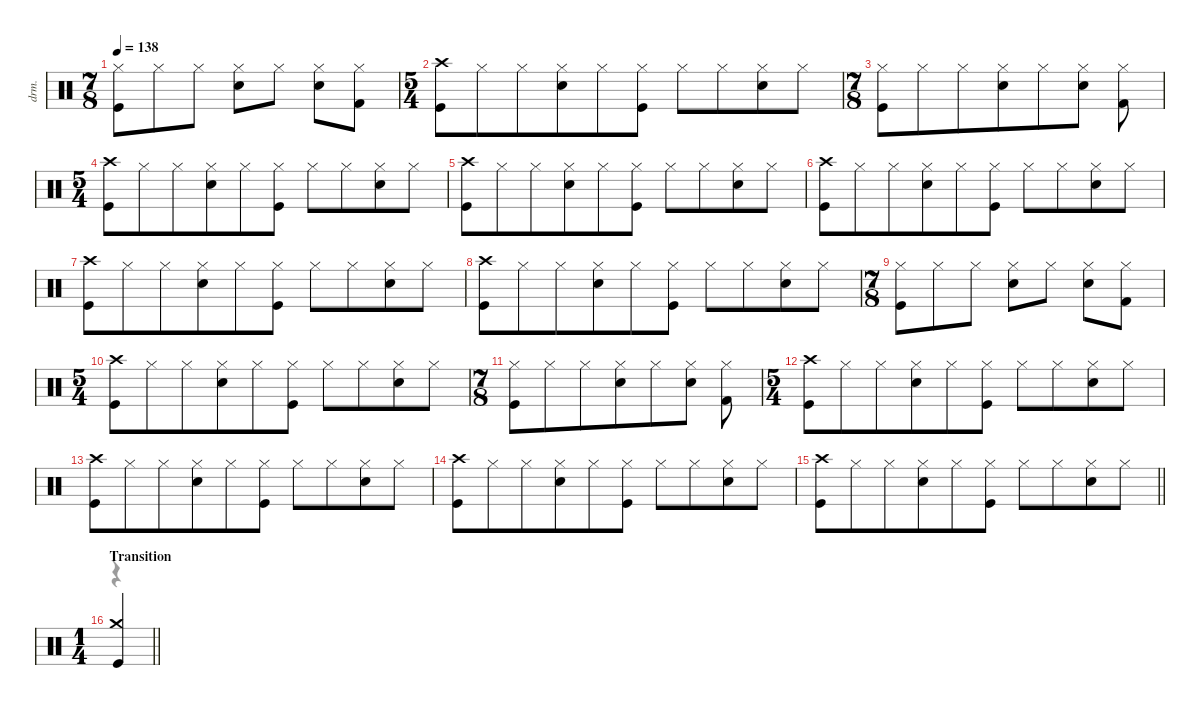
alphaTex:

\defaultSystemsLayout 4
\hideDynamics
\bracketExtendMode nobrackets
\track ("Percussions" "drm.") {instrument percussion}
\staff {score}
\articulation defaults
\voice
\ts (7 8)
\beaming (8 3 2 2)
\tempo 138
\clef neutral
\ks aminor
("Hi-Hat (closed)" "Kick (hit)").8{dy f} "Hi-Hat (closed)".8 "Hi-Hat (closed)".8 ("Hi-Hat (closed)" "Snare (hit) 2").8 "Hi-Hat (closed)".8 ("Hi-Hat (closed)" "Snare (hit) 2").8 ("Hi-Hat (closed)" "Kick (hit) 2").8 |
\ts (5 4)
\beaming (8 6 4)
("Crash high (hit)" "Kick (hit)").8 "Hi-Hat (closed)".8 "Hi-Hat (closed)".8 ("Hi-Hat (closed)" "Snare (hit) 2").8 "Hi-Hat (closed)".8 ("Hi-Hat (closed)" "Kick (hit)").8 "Hi-Hat (closed)".8 "Hi-Hat (closed)".8 ("Hi-Hat (closed)" "Snare (hit) 2").8 "Hi-Hat (closed)".8 |
\ts (7 8)
\beaming (8 6 4)
("Hi-Hat (closed)" "Kick (hit)").8 "Hi-Hat (closed)".8 "Hi-Hat (closed)".8 ("Hi-Hat (closed)" "Snare (hit) 2").8 "Hi-Hat (closed)".8 ("Hi-Hat (closed)" "Snare (hit) 2").8 ("Hi-Hat (closed)" "Kick (hit) 2").8 |
\ts (5 4)
\beaming (8 6 4)
("Crash high (hit)" "Kick (hit)").8 "Hi-Hat (closed)".8 "Hi-Hat (closed)".8 ("Hi-Hat (closed)" "Snare (hit) 2").8 "Hi-Hat (closed)".8 ("Hi-Hat (closed)" "Kick (hit)").8 "Hi-Hat (closed)".8 "Hi-Hat (closed)".8 ("Hi-Hat (closed)" "Snare (hit) 2").8 "Hi-Hat (closed)".8 |
("Crash high (hit)" "Kick (hit)").8 "Hi-Hat (closed)".8 "Hi-Hat (closed)".8 ("Hi-Hat (closed)" "Snare (hit) 2").8 "Hi-Hat (closed)".8 ("Hi-Hat (closed)" "Kick (hit)").8 "Hi-Hat (closed)".8 "Hi-Hat (closed)".8 ("Hi-Hat (closed)" "Snare (hit) 2").8 "Hi-Hat (closed)".8 |
("Crash high (hit)" "Kick (hit)").8 "Hi-Hat (closed)".8 "Hi-Hat (closed)".8 ("Hi-Hat (closed)" "Snare (hit) 2").8 "Hi-Hat (closed)".8 ("Hi-Hat (closed)" "Kick (hit)").8 "Hi-Hat (closed)".8 "Hi-Hat (closed)".8 ("Hi-Hat (closed)" "Snare (hit) 2").8 "Hi-Hat (closed)".8 |
("Crash high (hit)" "Kick (hit)").8 "Hi-Hat (closed)".8 "Hi-Hat (closed)".8 ("Hi-Hat (closed)" "Snare (hit) 2").8 "Hi-Hat (closed)".8 ("Hi-Hat (closed)" "Kick (hit)").8 "Hi-Hat (closed)".8 "Hi-Hat (closed)".8 ("Hi-Hat (closed)" "Snare (hit) 2").8 "Hi-Hat (closed)".8 |
("Crash high (hit)" "Kick (hit)").8 "Hi-Hat (closed)".8 "Hi-Hat (closed)".8 ("Hi-Hat (closed)" "Snare (hit) 2").8 "Hi-Hat (closed)".8 ("Hi-Hat (closed)" "Kick (hit)").8 "Hi-Hat (closed)".8 "Hi-Hat (closed)".8 ("Hi-Hat (closed)" "Snare (hit) 2").8 "Hi-Hat (closed)".8 |
\ts (7 8)
\beaming (8 3 2 2)
("Hi-Hat (closed)" "Kick (hit)").8 "Hi-Hat (closed)".8 "Hi-Hat (closed)".8 ("Hi-Hat (closed)" "Snare (hit) 2").8 "Hi-Hat (closed)".8 ("Hi-Hat (closed)" "Snare (hit) 2").8 ("Hi-Hat (closed)" "Kick (hit) 2").8 |
\ts (5 4)
\beaming (8 6 4)
("Crash high (hit)" "Kick (hit)").8 "Hi-Hat (closed)".8 "Hi-Hat (closed)".8 ("Hi-Hat (closed)" "Snare (hit) 2").8 "Hi-Hat (closed)".8 ("Hi-Hat (closed)" "Kick (hit)").8 "Hi-Hat (closed)".8 "Hi-Hat (closed)".8 ("Hi-Hat (closed)" "Snare (hit) 2").8 "Hi-Hat (closed)".8 |
\ts (7 8)
\beaming (8 6 4)
("Hi-Hat (closed)" "Kick (hit)").8 "Hi-Hat (closed)".8 "Hi-Hat (closed)".8 ("Hi-Hat (closed)" "Snare (hit) 2").8 "Hi-Hat (closed)".8 ("Hi-Hat (closed)" "Snare (hit) 2").8 ("Hi-Hat (closed)" "Kick (hit) 2").8 |
\ts (5 4)
\beaming (8 6 4)
("Crash high (hit)" "Kick (hit)").8 "Hi-Hat (closed)".8 "Hi-Hat (closed)".8 ("Hi-Hat (closed)" "Snare (hit) 2").8 "Hi-Hat (closed)".8 ("Hi-Hat (closed)" "Kick (hit)").8 "Hi-Hat (closed)".8 "Hi-Hat (closed)".8 ("Hi-Hat (closed)" "Snare (hit) 2").8 "Hi-Hat (closed)".8 |
("Crash high (hit)" "Kick (hit)").8 "Hi-Hat (closed)".8 "Hi-Hat (closed)".8 ("Hi-Hat (closed)" "Snare (hit) 2").8 "Hi-Hat (closed)".8 ("Hi-Hat (closed)" "Kick (hit)").8 "Hi-Hat (closed)".8 "Hi-Hat (closed)".8 ("Hi-Hat (closed)" "Snare (hit) 2").8 "Hi-Hat (closed)".8 |
("Crash high (hit)" "Kick (hit)").8 "Hi-Hat (closed)".8 "Hi-Hat (closed)".8 ("Hi-Hat (closed)" "Snare (hit) 2").8 "Hi-Hat (closed)".8 ("Hi-Hat (closed)" "Kick (hit)").8 "Hi-Hat (closed)".8 "Hi-Hat (closed)".8 ("Hi-Hat (closed)" "Snare (hit) 2").8 "Hi-Hat (closed)".8 |
\barLineRight lightlight
("Crash high (hit)" "Kick (hit)").8 "Hi-Hat (closed)".8 "Hi-Hat (closed)".8 ("Hi-Hat (closed)" "Snare (hit) 2").8 "Hi-Hat (closed)".8 ("Hi-Hat (closed)" "Kick (hit)").8 "Hi-Hat (closed)".8 "Hi-Hat (closed)".8 ("Hi-Hat (closed)" "Snare (hit) 2").8 "Hi-Hat (closed)".8 |
\ts (1 4)
\beaming (8 2)
\section ("" "Transition")
\barLineRight lightlight
("Kick (hit)" "Crash medium (hit)").4
\voice
\clef neutral
\ottava regular
\simile none
\ks aminor
|
|
|
|
|
|
|
|
|
|
|
|
|
|
\barLineRight lightlight
|
\barLineRight lightlight
r.4{dy mf}
